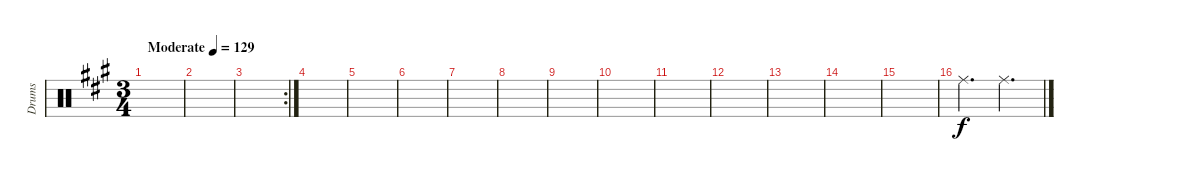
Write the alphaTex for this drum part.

\track ("Drums" "Drums") {instrument percussion}
\staff {score}
\articulation defaults
\ts (3 4)
\tempo (129 "Moderate")
\clef neutral
\ks f#minor
|
|
\rc 2
|
|
|
|
|
|
|
|
|
|
|
|
|
"Ride (middle)".4{d} "Ride (middle)".4{d}
